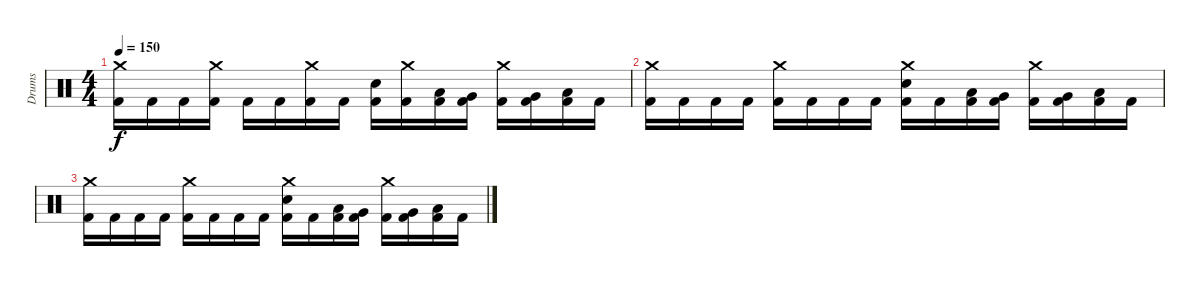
\track ("Drums" "Drums") {instrument percussion}
\staff {score}
\articulation defaults
\ts (4 4)
\tempo 150
\clef neutral
\ks c
("Crash medium (hit)" "Kick (hit) 2").16{dy f} "Kick (hit) 2".16 "Kick (hit) 2".16 ("Crash medium (hit)" "Kick (hit) 2").16 "Kick (hit) 2".16 "Kick (hit) 2".16 ("Crash medium (hit)" "Kick (hit) 2").16 "Kick (hit) 2".16 ("Snare (hit) 2" "Kick (hit) 2").16 ("Crash medium (hit)" "Kick (hit) 2").16 ("Low Tom (hit)" "Kick (hit) 2").16 ("Very Low Tom (hit)" "Kick (hit) 2").16 ("Crash medium (hit)" "Kick (hit) 2").16 ("Very Low Tom (hit)" "Kick (hit) 2").16 ("Low Floor Tom (hit)" "Kick (hit) 2").16 "Kick (hit) 2".16 |
("Crash medium (hit)" "Kick (hit) 2").16 "Kick (hit) 2".16 "Kick (hit) 2".16 "Kick (hit) 2".16 ("Crash medium (hit)" "Kick (hit) 2").16 "Kick (hit) 2".16 "Kick (hit) 2".16 "Kick (hit) 2".16 ("Crash medium (hit)" "Snare (hit) 2" "Kick (hit) 2").16 "Kick (hit) 2".16 ("Low Tom (hit)" "Kick (hit) 2").16 ("Very Low Tom (hit)" "Kick (hit) 2").16 ("Crash medium (hit)" "Kick (hit) 2").16 ("Very Low Tom (hit)" "Kick (hit) 2").16 ("Low Floor Tom (hit)" "Kick (hit) 2").16 "Kick (hit) 2".16 |
("Crash medium (hit)" "Kick (hit) 2").16 "Kick (hit) 2".16 "Kick (hit) 2".16 "Kick (hit) 2".16 ("Crash medium (hit)" "Kick (hit) 2").16 "Kick (hit) 2".16 "Kick (hit) 2".16 "Kick (hit) 2".16 ("Crash medium (hit)" "Snare (hit) 2" "Kick (hit) 2").16 "Kick (hit) 2".16 ("Low Tom (hit)" "Kick (hit) 2").16 ("Very Low Tom (hit)" "Kick (hit) 2").16 ("Crash medium (hit)" "Kick (hit) 2").16 ("Very Low Tom (hit)" "Kick (hit) 2").16 ("Low Floor Tom (hit)" "Kick (hit) 2").16 "Kick (hit) 2".16
